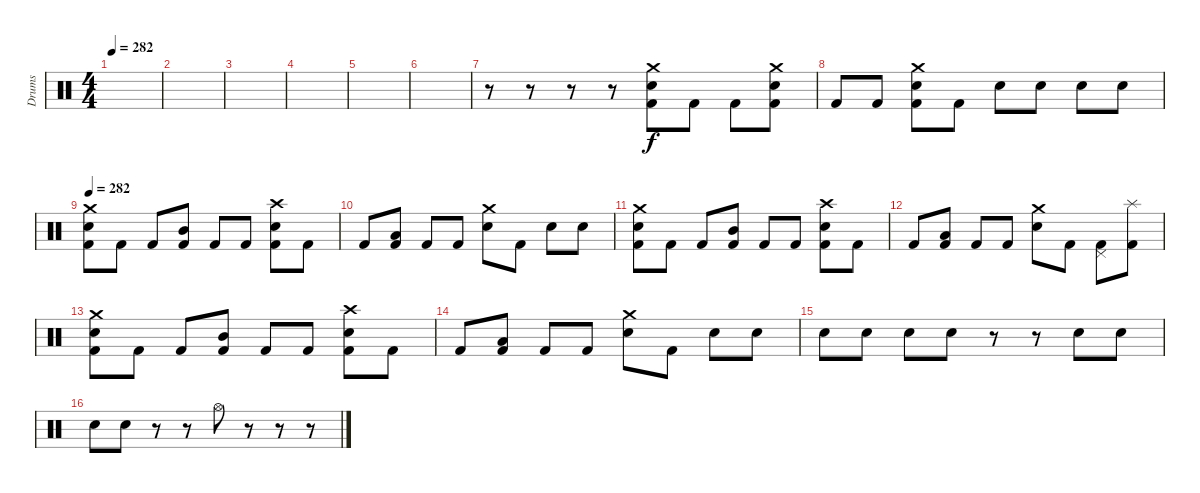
\track ("Drums" "Drums") {instrument percussion}
\staff {score}
\articulation defaults
\ts (4 4)
\section ("" "")
\tempo 282
\clef neutral
\ks c
|
|
|
|
|
|
r.8 r.8 r.8 r.8 ("Crash medium (hit)" "Snare (hit) 2" "Kick (hit) 2").8 "Kick (hit) 2".8 "Kick (hit) 2".8 ("Crash medium (hit)" "Snare (hit) 2" "Kick (hit) 2").8 |
"Kick (hit) 2".8 "Kick (hit) 2".8 ("Crash medium (hit)" "Snare (hit) 2" "Kick (hit) 2").8 "Kick (hit) 2".8 "Snare (hit) 2".8 "Snare (hit) 2".8 "Snare (hit) 2".8 "Snare (hit) 2".8 |
\tempo 282
("Crash medium (hit)" "Snare (hit) 2" "Kick (hit) 2").8 "Kick (hit) 2".8 "Kick (hit) 2".8 ("Mid Tom (hit)" "Kick (hit) 2").8 "Kick (hit) 2".8 "Kick (hit) 2".8 ("Crash high (hit)" "Snare (hit) 2" "Kick (hit) 2").8 "Kick (hit) 2".8 |
"Kick (hit) 2".8 ("Low Tom (hit)" "Kick (hit) 2").8 "Kick (hit) 2".8 "Kick (hit) 2".8 ("Crash medium (hit)" "Snare (hit) 2").8 "Kick (hit) 2".8 "Snare (hit) 2".8 "Snare (hit) 2".8 |
("Crash medium (hit)" "Snare (hit) 2" "Kick (hit) 2").8 "Kick (hit) 2".8 "Kick (hit) 2".8 ("Mid Tom (hit)" "Kick (hit) 2").8 "Kick (hit) 2".8 "Kick (hit) 2".8 ("Crash high (hit)" "Snare (hit) 2" "Kick (hit) 2").8 "Kick (hit) 2".8 |
"Kick (hit) 2".8 ("Low Tom (hit)" "Kick (hit) 2").8 "Kick (hit) 2".8 "Kick (hit) 2".8 ("Crash medium (hit)" "Snare (hit) 2").8 "Kick (hit) 2".8 ("Pedal Hi-Hat (hit)" "Kick (hit) 2").8 ("Splash (hit)" "Kick (hit) 2").8 |
("Crash medium (hit)" "Snare (hit) 2" "Kick (hit) 2").8 "Kick (hit) 2".8 "Kick (hit) 2".8 ("Mid Tom (hit)" "Kick (hit) 2").8 "Kick (hit) 2".8 "Kick (hit) 2".8 ("Crash high (hit)" "Snare (hit) 2" "Kick (hit) 2").8 "Kick (hit) 2".8 |
"Kick (hit) 2".8 ("Low Tom (hit)" "Kick (hit) 2").8 "Kick (hit) 2".8 "Kick (hit) 2".8 ("Crash medium (hit)" "Snare (hit) 2").8 "Kick (hit) 2".8 "Snare (hit) 2".8 "Snare (hit) 2".8 |
"Snare (hit) 2".8 "Snare (hit) 2".8 "Snare (hit) 2".8 "Snare (hit) 2".8 r.8 r.8 "Snare (hit) 2".8 "Snare (hit) 2".8 |
"Snare (hit) 2".8 "Snare (hit) 2".8 r.8 r.8 "Hi-Hat (open)".8 r.8 r.8 r.8
